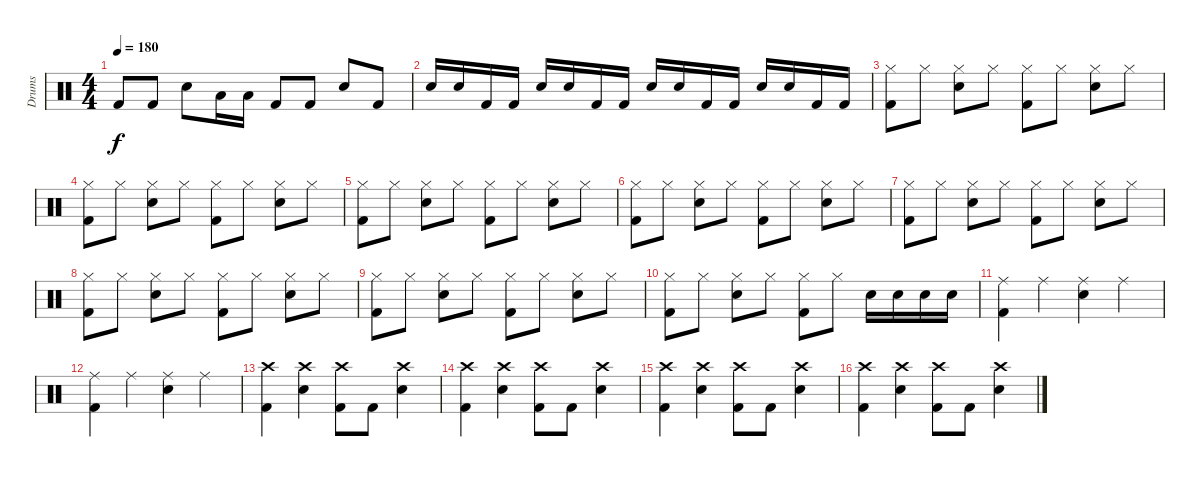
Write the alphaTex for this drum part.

\track ("Drums" "Drums") {instrument percussion}
\staff {score}
\articulation defaults
\ts (4 4)
\tempo 180
\clef neutral
\ks c "Kick (hit) 2".8{dy f} "Kick (hit) 2".8 "Snare (hit) 2".8 "Low Tom (hit)".16 "Low Floor Tom (hit)".16 "Kick (hit) 2".8 "Kick (hit) 2".8 "Snare (hit) 2".8 "Kick (hit) 2".8
|
"Snare (hit) 2".16 "Snare (hit) 2".16 "Kick (hit) 2".16 "Kick (hit) 2".16 "Snare (hit) 2".16 "Snare (hit) 2".16 "Kick (hit) 2".16 "Kick (hit) 2".16 "Snare (hit) 2".16 "Snare (hit) 2".16 "Kick (hit) 2".16 "Kick (hit) 2".16 "Snare (hit) 2".16 "Snare (hit) 2".16 "Kick (hit) 2".16 "Kick (hit) 2".16 |
("Kick (hit) 2" "Hi-Hat (closed)").8 "Hi-Hat (closed)".8 ("Snare (hit) 2" "Hi-Hat (closed)").8 "Hi-Hat (closed)".8 ("Kick (hit) 2" "Hi-Hat (closed)").8 "Hi-Hat (closed)".8 ("Snare (hit) 2" "Hi-Hat (closed)").8 "Hi-Hat (closed)".8 |
("Kick (hit) 2" "Hi-Hat (closed)").8 "Hi-Hat (closed)".8 ("Snare (hit) 2" "Hi-Hat (closed)").8 "Hi-Hat (closed)".8 ("Kick (hit) 2" "Hi-Hat (closed)").8 "Hi-Hat (closed)".8 ("Snare (hit) 2" "Hi-Hat (closed)").8 "Hi-Hat (closed)".8 |
("Kick (hit) 2" "Hi-Hat (closed)").8 "Hi-Hat (closed)".8 ("Snare (hit) 2" "Hi-Hat (closed)").8 "Hi-Hat (closed)".8 ("Kick (hit) 2" "Hi-Hat (closed)").8 "Hi-Hat (closed)".8 ("Snare (hit) 2" "Hi-Hat (closed)").8 "Hi-Hat (closed)".8 |
("Kick (hit) 2" "Hi-Hat (closed)").8 "Hi-Hat (closed)".8 ("Snare (hit) 2" "Hi-Hat (closed)").8 "Hi-Hat (closed)".8 ("Kick (hit) 2" "Hi-Hat (closed)").8 "Hi-Hat (closed)".8 ("Snare (hit) 2" "Hi-Hat (closed)").8 "Hi-Hat (closed)".8 |
("Kick (hit) 2" "Hi-Hat (closed)").8 "Hi-Hat (closed)".8 ("Snare (hit) 2" "Hi-Hat (closed)").8 "Hi-Hat (closed)".8 ("Kick (hit) 2" "Hi-Hat (closed)").8 "Hi-Hat (closed)".8 ("Snare (hit) 2" "Hi-Hat (closed)").8 "Hi-Hat (closed)".8 |
("Kick (hit) 2" "Hi-Hat (closed)").8 "Hi-Hat (closed)".8 ("Snare (hit) 2" "Hi-Hat (closed)").8 "Hi-Hat (closed)".8 ("Kick (hit) 2" "Hi-Hat (closed)").8 "Hi-Hat (closed)".8 ("Snare (hit) 2" "Hi-Hat (closed)").8 "Hi-Hat (closed)".8 |
("Kick (hit) 2" "Hi-Hat (closed)").8 "Hi-Hat (closed)".8 ("Snare (hit) 2" "Hi-Hat (closed)").8 "Hi-Hat (closed)".8 ("Kick (hit) 2" "Hi-Hat (closed)").8 "Hi-Hat (closed)".8 ("Snare (hit) 2" "Hi-Hat (closed)").8 "Hi-Hat (closed)".8 |
("Kick (hit) 2" "Hi-Hat (closed)").8 "Hi-Hat (closed)".8 ("Snare (hit) 2" "Hi-Hat (closed)").8 "Hi-Hat (closed)".8 ("Kick (hit) 2" "Hi-Hat (closed)").8 "Hi-Hat (closed)".8 "Snare (hit) 2".16 "Snare (hit) 2".16 "Snare (hit) 2".16 "Snare (hit) 2".16 |
("Kick (hit) 2" "Ride (middle)").4 "Ride (middle)".4 ("Snare (hit) 2" "Ride (middle)").4 "Ride (middle)".4 |
("Kick (hit) 2" "Ride (middle)").4 "Ride (middle)".4 ("Snare (hit) 2" "Ride (middle)").4 "Ride (middle)".4 |
("Kick (hit) 2" "Crash high (hit)").4 ("Snare (hit) 2" "Crash high (hit)").4 ("Kick (hit) 2" "Crash high (hit)").8 "Kick (hit) 2".8 ("Snare (hit) 2" "Crash high (hit)").4 |
("Kick (hit) 2" "Crash high (hit)").4 ("Snare (hit) 2" "Crash high (hit)").4 ("Kick (hit) 2" "Crash high (hit)").8 "Kick (hit) 2".8 ("Snare (hit) 2" "Crash high (hit)").4 |
("Kick (hit) 2" "Crash high (hit)").4 ("Snare (hit) 2" "Crash high (hit)").4 ("Kick (hit) 2" "Crash high (hit)").8 "Kick (hit) 2".8 ("Snare (hit) 2" "Crash high (hit)").4 |
("Kick (hit) 2" "Crash high (hit)").4 ("Snare (hit) 2" "Crash high (hit)").4 ("Kick (hit) 2" "Crash high (hit)").8 "Kick (hit) 2".8 ("Snare (hit) 2" "Crash high (hit)").4
